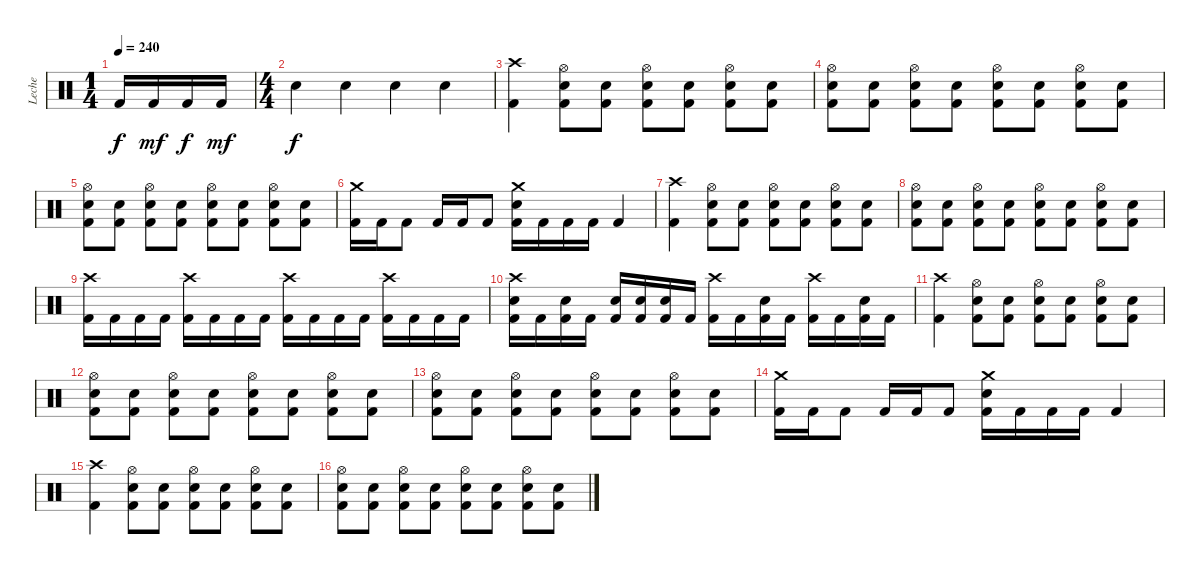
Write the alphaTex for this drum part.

\track ("Leche" "Leche") {instrument percussion}
\staff {score}
\articulation defaults
\ts (1 4)
\tempo 240
\clef neutral
\ks c "Kick (hit) 2".16{dy f} "Kick (hit) 2".16{dy mf} "Kick (hit) 2".16{dy f} "Kick (hit) 2".16{dy mf}
|
\ts (4 4)
"Electric Snare (hit)".4{dy f} "Electric Snare (hit)".4 "Electric Snare (hit)".4 "Electric Snare (hit)".4 |
("Crash high (hit)" "Kick (hit) 2").4 ("Hi-Hat (open)" "Electric Snare (hit)" "Kick (hit) 2").8 ("Electric Snare (hit)" "Kick (hit) 2").8 ("Hi-Hat (open)" "Electric Snare (hit)" "Kick (hit) 2").8 ("Electric Snare (hit)" "Kick (hit) 2").8 ("Hi-Hat (open)" "Electric Snare (hit)" "Kick (hit) 2").8 ("Electric Snare (hit)" "Kick (hit) 2").8 |
("Hi-Hat (open)" "Electric Snare (hit)" "Kick (hit) 2").8 ("Electric Snare (hit)" "Kick (hit) 2").8 ("Hi-Hat (open)" "Electric Snare (hit)" "Kick (hit) 2").8 ("Electric Snare (hit)" "Kick (hit) 2").8 ("Hi-Hat (open)" "Electric Snare (hit)" "Kick (hit) 2").8 ("Electric Snare (hit)" "Kick (hit) 2").8 ("Hi-Hat (open)" "Electric Snare (hit)" "Kick (hit) 2").8 ("Electric Snare (hit)" "Kick (hit) 2").8 |
("Hi-Hat (open)" "Electric Snare (hit)" "Kick (hit) 2").8 ("Electric Snare (hit)" "Kick (hit) 2").8 ("Hi-Hat (open)" "Electric Snare (hit)" "Kick (hit) 2").8 ("Electric Snare (hit)" "Kick (hit) 2").8 ("Hi-Hat (open)" "Electric Snare (hit)" "Kick (hit) 2").8 ("Electric Snare (hit)" "Kick (hit) 2").8 ("Hi-Hat (open)" "Electric Snare (hit)" "Kick (hit) 2").8 ("Electric Snare (hit)" "Kick (hit) 2").8 |
("Crash medium (hit)" "Kick (hit) 2").16 "Kick (hit) 2".16 "Kick (hit) 2".8 "Kick (hit) 2".16 "Kick (hit) 2".16 "Kick (hit) 2".8 ("Crash medium (hit)" "Electric Snare (hit)" "Kick (hit) 2").16 "Kick (hit) 2".16 "Kick (hit) 2".16 "Kick (hit) 2".16 "Kick (hit) 2".4 |
("Crash high (hit)" "Kick (hit) 2").4 ("Hi-Hat (open)" "Electric Snare (hit)" "Kick (hit) 2").8 ("Electric Snare (hit)" "Kick (hit) 2").8 ("Hi-Hat (open)" "Electric Snare (hit)" "Kick (hit) 2").8 ("Electric Snare (hit)" "Kick (hit) 2").8 ("Hi-Hat (open)" "Electric Snare (hit)" "Kick (hit) 2").8 ("Electric Snare (hit)" "Kick (hit) 2").8 |
("Hi-Hat (open)" "Electric Snare (hit)" "Kick (hit) 2").8 ("Electric Snare (hit)" "Kick (hit) 2").8 ("Hi-Hat (open)" "Electric Snare (hit)" "Kick (hit) 2").8 ("Electric Snare (hit)" "Kick (hit) 2").8 ("Hi-Hat (open)" "Electric Snare (hit)" "Kick (hit) 2").8 ("Electric Snare (hit)" "Kick (hit) 2").8 ("Hi-Hat (open)" "Electric Snare (hit)" "Kick (hit) 2").8 ("Electric Snare (hit)" "Kick (hit) 2").8 |
("Crash high (hit)" "Kick (hit) 2").16 "Kick (hit) 2".16 "Kick (hit) 2".16 "Kick (hit) 2".16 ("Crash high (hit)" "Kick (hit) 2").16 "Kick (hit) 2".16 "Kick (hit) 2".16 "Kick (hit) 2".16 ("Crash high (hit)" "Kick (hit) 2").16 "Kick (hit) 2".16 "Kick (hit) 2".16 "Kick (hit) 2".16 ("Crash high (hit)" "Kick (hit) 2").16 "Kick (hit) 2".16 "Kick (hit) 2".16 "Kick (hit) 2".16 |
("Crash high (hit)" "Electric Snare (hit)" "Kick (hit) 2").16 "Kick (hit) 2".16 ("Electric Snare (hit)" "Kick (hit) 2").16 "Kick (hit) 2".16 ("Electric Snare (hit)" "Kick (hit) 2").16 ("Electric Snare (hit)" "Kick (hit) 2").16 ("Electric Snare (hit)" "Kick (hit) 2").16 "Kick (hit) 2".16 ("Crash high (hit)" "Kick (hit) 2").16 "Kick (hit) 2".16 ("Electric Snare (hit)" "Kick (hit) 2").16 "Kick (hit) 2".16 ("Crash high (hit)" "Kick (hit) 2").16 "Kick (hit) 2".16 ("Electric Snare (hit)" "Kick (hit) 2").16 "Kick (hit) 2".16 |
("Crash high (hit)" "Kick (hit) 2").4 ("Hi-Hat (open)" "Electric Snare (hit)" "Kick (hit) 2").8 ("Electric Snare (hit)" "Kick (hit) 2").8 ("Hi-Hat (open)" "Electric Snare (hit)" "Kick (hit) 2").8 ("Electric Snare (hit)" "Kick (hit) 2").8 ("Hi-Hat (open)" "Electric Snare (hit)" "Kick (hit) 2").8 ("Electric Snare (hit)" "Kick (hit) 2").8 |
("Hi-Hat (open)" "Electric Snare (hit)" "Kick (hit) 2").8 ("Electric Snare (hit)" "Kick (hit) 2").8 ("Hi-Hat (open)" "Electric Snare (hit)" "Kick (hit) 2").8 ("Electric Snare (hit)" "Kick (hit) 2").8 ("Hi-Hat (open)" "Electric Snare (hit)" "Kick (hit) 2").8 ("Electric Snare (hit)" "Kick (hit) 2").8 ("Hi-Hat (open)" "Electric Snare (hit)" "Kick (hit) 2").8 ("Electric Snare (hit)" "Kick (hit) 2").8 |
("Hi-Hat (open)" "Electric Snare (hit)" "Kick (hit) 2").8 ("Electric Snare (hit)" "Kick (hit) 2").8 ("Hi-Hat (open)" "Electric Snare (hit)" "Kick (hit) 2").8 ("Electric Snare (hit)" "Kick (hit) 2").8 ("Hi-Hat (open)" "Electric Snare (hit)" "Kick (hit) 2").8 ("Electric Snare (hit)" "Kick (hit) 2").8 ("Hi-Hat (open)" "Electric Snare (hit)" "Kick (hit) 2").8 ("Electric Snare (hit)" "Kick (hit) 2").8 |
("Crash medium (hit)" "Kick (hit) 2").16 "Kick (hit) 2".16 "Kick (hit) 2".8 "Kick (hit) 2".16 "Kick (hit) 2".16 "Kick (hit) 2".8 ("Crash medium (hit)" "Electric Snare (hit)" "Kick (hit) 2").16 "Kick (hit) 2".16 "Kick (hit) 2".16 "Kick (hit) 2".16 "Kick (hit) 2".4 |
("Crash high (hit)" "Kick (hit) 2").4 ("Hi-Hat (open)" "Electric Snare (hit)" "Kick (hit) 2").8 ("Electric Snare (hit)" "Kick (hit) 2").8 ("Hi-Hat (open)" "Electric Snare (hit)" "Kick (hit) 2").8 ("Electric Snare (hit)" "Kick (hit) 2").8 ("Hi-Hat (open)" "Electric Snare (hit)" "Kick (hit) 2").8 ("Electric Snare (hit)" "Kick (hit) 2").8 |
("Hi-Hat (open)" "Electric Snare (hit)" "Kick (hit) 2").8 ("Electric Snare (hit)" "Kick (hit) 2").8 ("Hi-Hat (open)" "Electric Snare (hit)" "Kick (hit) 2").8 ("Electric Snare (hit)" "Kick (hit) 2").8 ("Hi-Hat (open)" "Electric Snare (hit)" "Kick (hit) 2").8 ("Electric Snare (hit)" "Kick (hit) 2").8 ("Hi-Hat (open)" "Electric Snare (hit)" "Kick (hit) 2").8 ("Electric Snare (hit)" "Kick (hit) 2").8
